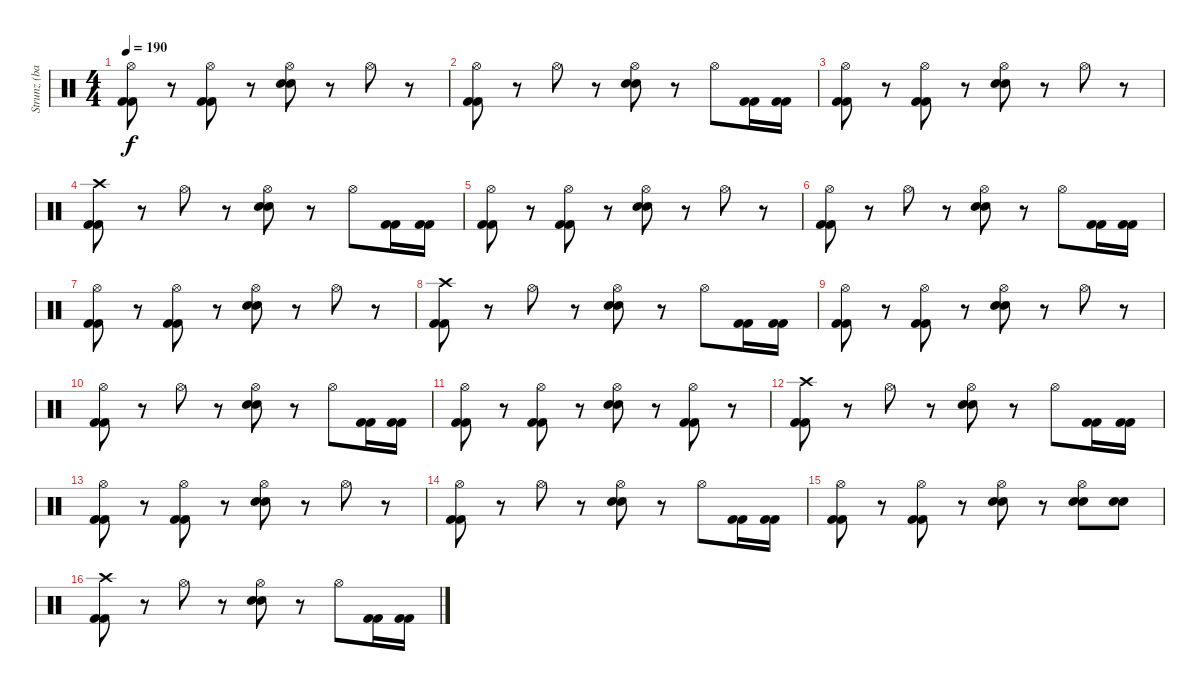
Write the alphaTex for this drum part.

\track ("Strunz (bateria)" "Strunz (ba") {instrument percussion}
\staff {score}
\articulation defaults
\ts (4 4)
\tempo 190
\clef neutral
\ks c
("Hi-Hat (open)" "Kick (hit) 2" "Kick (hit) 2").8{dy f} r.8 ("Hi-Hat (open)" "Kick (hit) 2" "Kick (hit) 2").8 r.8 ("Hi-Hat (open)" "Snare (hit) 2" "Snare (hit) 2").8 r.8 "Hi-Hat (open)".8 r.8 |
("Hi-Hat (open)" "Kick (hit) 2" "Kick (hit) 2").8 r.8 "Hi-Hat (open)".8 r.8 ("Hi-Hat (open)" "Snare (hit) 2" "Snare (hit) 2").8 r.8 "Hi-Hat (open)".8 ("Kick (hit) 2" "Kick (hit) 2").16 ("Kick (hit) 2" "Kick (hit) 2").16 |
("Hi-Hat (open)" "Kick (hit) 2" "Kick (hit) 2").8 r.8 ("Hi-Hat (open)" "Kick (hit) 2" "Kick (hit) 2").8 r.8 ("Hi-Hat (open)" "Snare (hit) 2" "Snare (hit) 2").8 r.8 "Hi-Hat (open)".8 r.8 |
("Crash high (hit)" "Kick (hit) 2" "Kick (hit) 2").8 r.8 "Hi-Hat (open)".8 r.8 ("Hi-Hat (open)" "Snare (hit) 2" "Snare (hit) 2").8 r.8 "Hi-Hat (open)".8 ("Kick (hit) 2" "Kick (hit) 2").16 ("Kick (hit) 2" "Kick (hit) 2").16 |
("Hi-Hat (open)" "Kick (hit) 2" "Kick (hit) 2").8 r.8 ("Hi-Hat (open)" "Kick (hit) 2" "Kick (hit) 2").8 r.8 ("Hi-Hat (open)" "Snare (hit) 2" "Snare (hit) 2").8 r.8 "Hi-Hat (open)".8 r.8 |
("Hi-Hat (open)" "Kick (hit) 2" "Kick (hit) 2").8 r.8 "Hi-Hat (open)".8 r.8 ("Hi-Hat (open)" "Snare (hit) 2" "Snare (hit) 2").8 r.8 "Hi-Hat (open)".8 ("Kick (hit) 2" "Kick (hit) 2").16 ("Kick (hit) 2" "Kick (hit) 2").16 |
("Hi-Hat (open)" "Kick (hit) 2" "Kick (hit) 2").8 r.8 ("Hi-Hat (open)" "Kick (hit) 2" "Kick (hit) 2").8 r.8 ("Hi-Hat (open)" "Snare (hit) 2" "Snare (hit) 2").8 r.8 "Hi-Hat (open)".8 r.8 |
("Crash high (hit)" "Kick (hit) 2" "Kick (hit) 2").8 r.8 "Hi-Hat (open)".8 r.8 ("Hi-Hat (open)" "Snare (hit) 2" "Snare (hit) 2").8 r.8 "Hi-Hat (open)".8 ("Kick (hit) 2" "Kick (hit) 2").16 ("Kick (hit) 2" "Kick (hit) 2").16 |
("Hi-Hat (open)" "Kick (hit) 2" "Kick (hit) 2").8 r.8 ("Hi-Hat (open)" "Kick (hit) 2" "Kick (hit) 2").8 r.8 ("Hi-Hat (open)" "Snare (hit) 2" "Snare (hit) 2").8 r.8 "Hi-Hat (open)".8 r.8 |
("Hi-Hat (open)" "Kick (hit) 2" "Kick (hit) 2").8 r.8 "Hi-Hat (open)".8 r.8 ("Hi-Hat (open)" "Snare (hit) 2" "Snare (hit) 2").8 r.8 "Hi-Hat (open)".8 ("Kick (hit) 2" "Kick (hit) 2").16 ("Kick (hit) 2" "Kick (hit) 2").16 |
("Hi-Hat (open)" "Kick (hit) 2" "Kick (hit) 2").8 r.8 ("Hi-Hat (open)" "Kick (hit) 2" "Kick (hit) 2").8 r.8 ("Hi-Hat (open)" "Snare (hit) 2" "Snare (hit) 2").8 r.8 ("Hi-Hat (open)" "Kick (hit) 2" "Kick (hit) 2").8 r.8 |
("Crash high (hit)" "Kick (hit) 2" "Kick (hit) 2").8 r.8 "Hi-Hat (open)".8 r.8 ("Hi-Hat (open)" "Snare (hit) 2" "Snare (hit) 2").8 r.8 "Hi-Hat (open)".8 ("Kick (hit) 2" "Kick (hit) 2").16 ("Kick (hit) 2" "Kick (hit) 2").16 |
("Hi-Hat (open)" "Kick (hit) 2" "Kick (hit) 2").8 r.8 ("Hi-Hat (open)" "Kick (hit) 2" "Kick (hit) 2").8 r.8 ("Hi-Hat (open)" "Snare (hit) 2" "Snare (hit) 2").8 r.8 "Hi-Hat (open)".8 r.8 |
("Hi-Hat (open)" "Kick (hit) 2" "Kick (hit) 2").8 r.8 "Hi-Hat (open)".8 r.8 ("Hi-Hat (open)" "Snare (hit) 2" "Snare (hit) 2").8 r.8 "Hi-Hat (open)".8 ("Kick (hit) 2" "Kick (hit) 2").16 ("Kick (hit) 2" "Kick (hit) 2").16 |
("Hi-Hat (open)" "Kick (hit) 2" "Kick (hit) 2").8 r.8 ("Hi-Hat (open)" "Kick (hit) 2" "Kick (hit) 2").8 r.8 ("Hi-Hat (open)" "Snare (hit) 2" "Snare (hit) 2").8 r.8 ("Hi-Hat (open)" "Snare (hit) 2" "Snare (hit) 2").8 ("Snare (hit) 2" "Snare (hit) 2").8 |
("Crash high (hit)" "Kick (hit) 2" "Kick (hit) 2").8 r.8 "Hi-Hat (open)".8 r.8 ("Hi-Hat (open)" "Snare (hit) 2" "Snare (hit) 2").8 r.8 "Hi-Hat (open)".8 ("Kick (hit) 2" "Kick (hit) 2").16 ("Kick (hit) 2" "Kick (hit) 2").16
